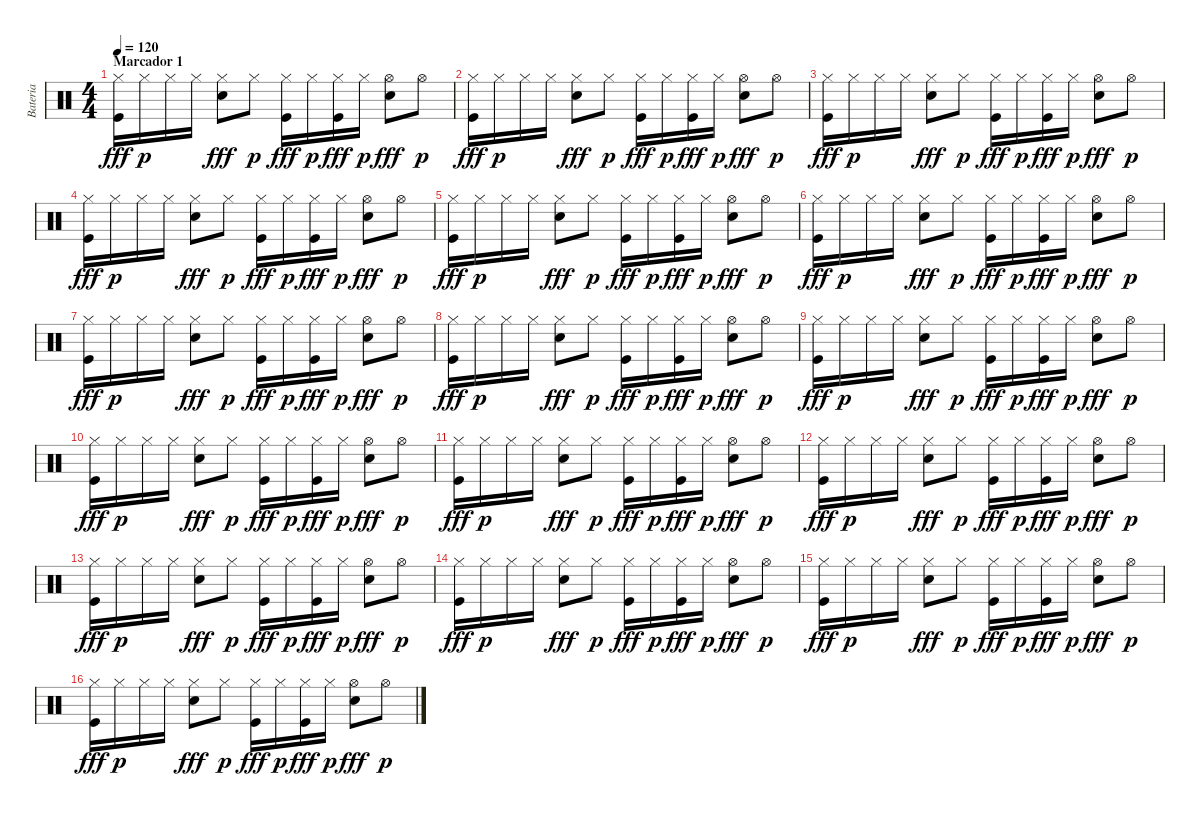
\track ("Bateria" "Bateria") {instrument percussion}
\staff {score}
\articulation defaults
\ts (4 4)
\section ("" "Marcador 1")
\tempo 120
\clef neutral
\ks c
("Hi-Hat (closed)" "Kick (hit)").16{dy fff} "Hi-Hat (closed)".16{dy p} "Hi-Hat (closed)".16 "Hi-Hat (closed)".16 ("Hi-Hat (closed)" "Snare (hit) 2").8{dy fff} "Hi-Hat (closed)".8{dy p} ("Hi-Hat (closed)" "Kick (hit)").16{dy fff} "Hi-Hat (closed)".16{dy p} ("Hi-Hat (closed)" "Kick (hit)").16{dy fff} "Hi-Hat (closed)".16{dy p} ("Hi-Hat (open)" "Snare (hit) 2").8{dy fff} "Hi-Hat (open)".8{dy p} |
("Hi-Hat (closed)" "Kick (hit)").16{dy fff} "Hi-Hat (closed)".16{dy p} "Hi-Hat (closed)".16 "Hi-Hat (closed)".16 ("Hi-Hat (closed)" "Snare (hit) 2").8{dy fff} "Hi-Hat (closed)".8{dy p} ("Hi-Hat (closed)" "Kick (hit)").16{dy fff} "Hi-Hat (closed)".16{dy p} ("Hi-Hat (closed)" "Kick (hit)").16{dy fff} "Hi-Hat (closed)".16{dy p} ("Hi-Hat (open)" "Snare (hit) 2").8{dy fff} "Hi-Hat (open)".8{dy p} |
("Hi-Hat (closed)" "Kick (hit)").16{dy fff} "Hi-Hat (closed)".16{dy p} "Hi-Hat (closed)".16 "Hi-Hat (closed)".16 ("Hi-Hat (closed)" "Snare (hit) 2").8{dy fff} "Hi-Hat (closed)".8{dy p} ("Hi-Hat (closed)" "Kick (hit)").16{dy fff} "Hi-Hat (closed)".16{dy p} ("Hi-Hat (closed)" "Kick (hit)").16{dy fff} "Hi-Hat (closed)".16{dy p} ("Hi-Hat (open)" "Snare (hit) 2").8{dy fff} "Hi-Hat (open)".8{dy p} |
("Hi-Hat (closed)" "Kick (hit)").16{dy fff} "Hi-Hat (closed)".16{dy p} "Hi-Hat (closed)".16 "Hi-Hat (closed)".16 ("Hi-Hat (closed)" "Snare (hit) 2").8{dy fff} "Hi-Hat (closed)".8{dy p} ("Hi-Hat (closed)" "Kick (hit)").16{dy fff} "Hi-Hat (closed)".16{dy p} ("Hi-Hat (closed)" "Kick (hit)").16{dy fff} "Hi-Hat (closed)".16{dy p} ("Hi-Hat (open)" "Snare (hit) 2").8{dy fff} "Hi-Hat (open)".8{dy p} |
("Hi-Hat (closed)" "Kick (hit)").16{dy fff} "Hi-Hat (closed)".16{dy p} "Hi-Hat (closed)".16 "Hi-Hat (closed)".16 ("Hi-Hat (closed)" "Snare (hit) 2").8{dy fff} "Hi-Hat (closed)".8{dy p} ("Hi-Hat (closed)" "Kick (hit)").16{dy fff} "Hi-Hat (closed)".16{dy p} ("Hi-Hat (closed)" "Kick (hit)").16{dy fff} "Hi-Hat (closed)".16{dy p} ("Hi-Hat (open)" "Snare (hit) 2").8{dy fff} "Hi-Hat (open)".8{dy p} |
("Hi-Hat (closed)" "Kick (hit)").16{dy fff} "Hi-Hat (closed)".16{dy p} "Hi-Hat (closed)".16 "Hi-Hat (closed)".16 ("Hi-Hat (closed)" "Snare (hit) 2").8{dy fff} "Hi-Hat (closed)".8{dy p} ("Hi-Hat (closed)" "Kick (hit)").16{dy fff} "Hi-Hat (closed)".16{dy p} ("Hi-Hat (closed)" "Kick (hit)").16{dy fff} "Hi-Hat (closed)".16{dy p} ("Hi-Hat (open)" "Snare (hit) 2").8{dy fff} "Hi-Hat (open)".8{dy p} |
("Hi-Hat (closed)" "Kick (hit)").16{dy fff} "Hi-Hat (closed)".16{dy p} "Hi-Hat (closed)".16 "Hi-Hat (closed)".16 ("Hi-Hat (closed)" "Snare (hit) 2").8{dy fff} "Hi-Hat (closed)".8{dy p} ("Hi-Hat (closed)" "Kick (hit)").16{dy fff} "Hi-Hat (closed)".16{dy p} ("Hi-Hat (closed)" "Kick (hit)").16{dy fff} "Hi-Hat (closed)".16{dy p} ("Hi-Hat (open)" "Snare (hit) 2").8{dy fff} "Hi-Hat (open)".8{dy p} |
("Hi-Hat (closed)" "Kick (hit)").16{dy fff} "Hi-Hat (closed)".16{dy p} "Hi-Hat (closed)".16 "Hi-Hat (closed)".16 ("Hi-Hat (closed)" "Snare (hit) 2").8{dy fff} "Hi-Hat (closed)".8{dy p} ("Hi-Hat (closed)" "Kick (hit)").16{dy fff} "Hi-Hat (closed)".16{dy p} ("Hi-Hat (closed)" "Kick (hit)").16{dy fff} "Hi-Hat (closed)".16{dy p} ("Hi-Hat (open)" "Snare (hit) 2").8{dy fff} "Hi-Hat (open)".8{dy p} |
("Hi-Hat (closed)" "Kick (hit)").16{dy fff} "Hi-Hat (closed)".16{dy p} "Hi-Hat (closed)".16 "Hi-Hat (closed)".16 ("Hi-Hat (closed)" "Snare (hit) 2").8{dy fff} "Hi-Hat (closed)".8{dy p} ("Hi-Hat (closed)" "Kick (hit)").16{dy fff} "Hi-Hat (closed)".16{dy p} ("Hi-Hat (closed)" "Kick (hit)").16{dy fff} "Hi-Hat (closed)".16{dy p} ("Hi-Hat (open)" "Snare (hit) 2").8{dy fff} "Hi-Hat (open)".8{dy p} |
("Hi-Hat (closed)" "Kick (hit)").16{dy fff} "Hi-Hat (closed)".16{dy p} "Hi-Hat (closed)".16 "Hi-Hat (closed)".16 ("Hi-Hat (closed)" "Snare (hit) 2").8{dy fff} "Hi-Hat (closed)".8{dy p} ("Hi-Hat (closed)" "Kick (hit)").16{dy fff} "Hi-Hat (closed)".16{dy p} ("Hi-Hat (closed)" "Kick (hit)").16{dy fff} "Hi-Hat (closed)".16{dy p} ("Hi-Hat (open)" "Snare (hit) 2").8{dy fff} "Hi-Hat (open)".8{dy p} |
("Hi-Hat (closed)" "Kick (hit)").16{dy fff} "Hi-Hat (closed)".16{dy p} "Hi-Hat (closed)".16 "Hi-Hat (closed)".16 ("Hi-Hat (closed)" "Snare (hit) 2").8{dy fff} "Hi-Hat (closed)".8{dy p} ("Hi-Hat (closed)" "Kick (hit)").16{dy fff} "Hi-Hat (closed)".16{dy p} ("Hi-Hat (closed)" "Kick (hit)").16{dy fff} "Hi-Hat (closed)".16{dy p} ("Hi-Hat (open)" "Snare (hit) 2").8{dy fff} "Hi-Hat (open)".8{dy p} |
("Hi-Hat (closed)" "Kick (hit)").16{dy fff} "Hi-Hat (closed)".16{dy p} "Hi-Hat (closed)".16 "Hi-Hat (closed)".16 ("Hi-Hat (closed)" "Snare (hit) 2").8{dy fff} "Hi-Hat (closed)".8{dy p} ("Hi-Hat (closed)" "Kick (hit)").16{dy fff} "Hi-Hat (closed)".16{dy p} ("Hi-Hat (closed)" "Kick (hit)").16{dy fff} "Hi-Hat (closed)".16{dy p} ("Hi-Hat (open)" "Snare (hit) 2").8{dy fff} "Hi-Hat (open)".8{dy p} |
("Hi-Hat (closed)" "Kick (hit)").16{dy fff} "Hi-Hat (closed)".16{dy p} "Hi-Hat (closed)".16 "Hi-Hat (closed)".16 ("Hi-Hat (closed)" "Snare (hit) 2").8{dy fff} "Hi-Hat (closed)".8{dy p} ("Hi-Hat (closed)" "Kick (hit)").16{dy fff} "Hi-Hat (closed)".16{dy p} ("Hi-Hat (closed)" "Kick (hit)").16{dy fff} "Hi-Hat (closed)".16{dy p} ("Hi-Hat (open)" "Snare (hit) 2").8{dy fff} "Hi-Hat (open)".8{dy p} |
("Hi-Hat (closed)" "Kick (hit)").16{dy fff} "Hi-Hat (closed)".16{dy p} "Hi-Hat (closed)".16 "Hi-Hat (closed)".16 ("Hi-Hat (closed)" "Snare (hit) 2").8{dy fff} "Hi-Hat (closed)".8{dy p} ("Hi-Hat (closed)" "Kick (hit)").16{dy fff} "Hi-Hat (closed)".16{dy p} ("Hi-Hat (closed)" "Kick (hit)").16{dy fff} "Hi-Hat (closed)".16{dy p} ("Hi-Hat (open)" "Snare (hit) 2").8{dy fff} "Hi-Hat (open)".8{dy p} |
("Hi-Hat (closed)" "Kick (hit)").16{dy fff} "Hi-Hat (closed)".16{dy p} "Hi-Hat (closed)".16 "Hi-Hat (closed)".16 ("Hi-Hat (closed)" "Snare (hit) 2").8{dy fff} "Hi-Hat (closed)".8{dy p} ("Hi-Hat (closed)" "Kick (hit)").16{dy fff} "Hi-Hat (closed)".16{dy p} ("Hi-Hat (closed)" "Kick (hit)").16{dy fff} "Hi-Hat (closed)".16{dy p} ("Hi-Hat (open)" "Snare (hit) 2").8{dy fff} "Hi-Hat (open)".8{dy p} |
("Hi-Hat (closed)" "Kick (hit)").16{dy fff} "Hi-Hat (closed)".16{dy p} "Hi-Hat (closed)".16 "Hi-Hat (closed)".16 ("Hi-Hat (closed)" "Snare (hit) 2").8{dy fff} "Hi-Hat (closed)".8{dy p} ("Hi-Hat (closed)" "Kick (hit)").16{dy fff} "Hi-Hat (closed)".16{dy p} ("Hi-Hat (closed)" "Kick (hit)").16{dy fff} "Hi-Hat (closed)".16{dy p} ("Hi-Hat (open)" "Snare (hit) 2").8{dy fff} "Hi-Hat (open)".8{dy p}
